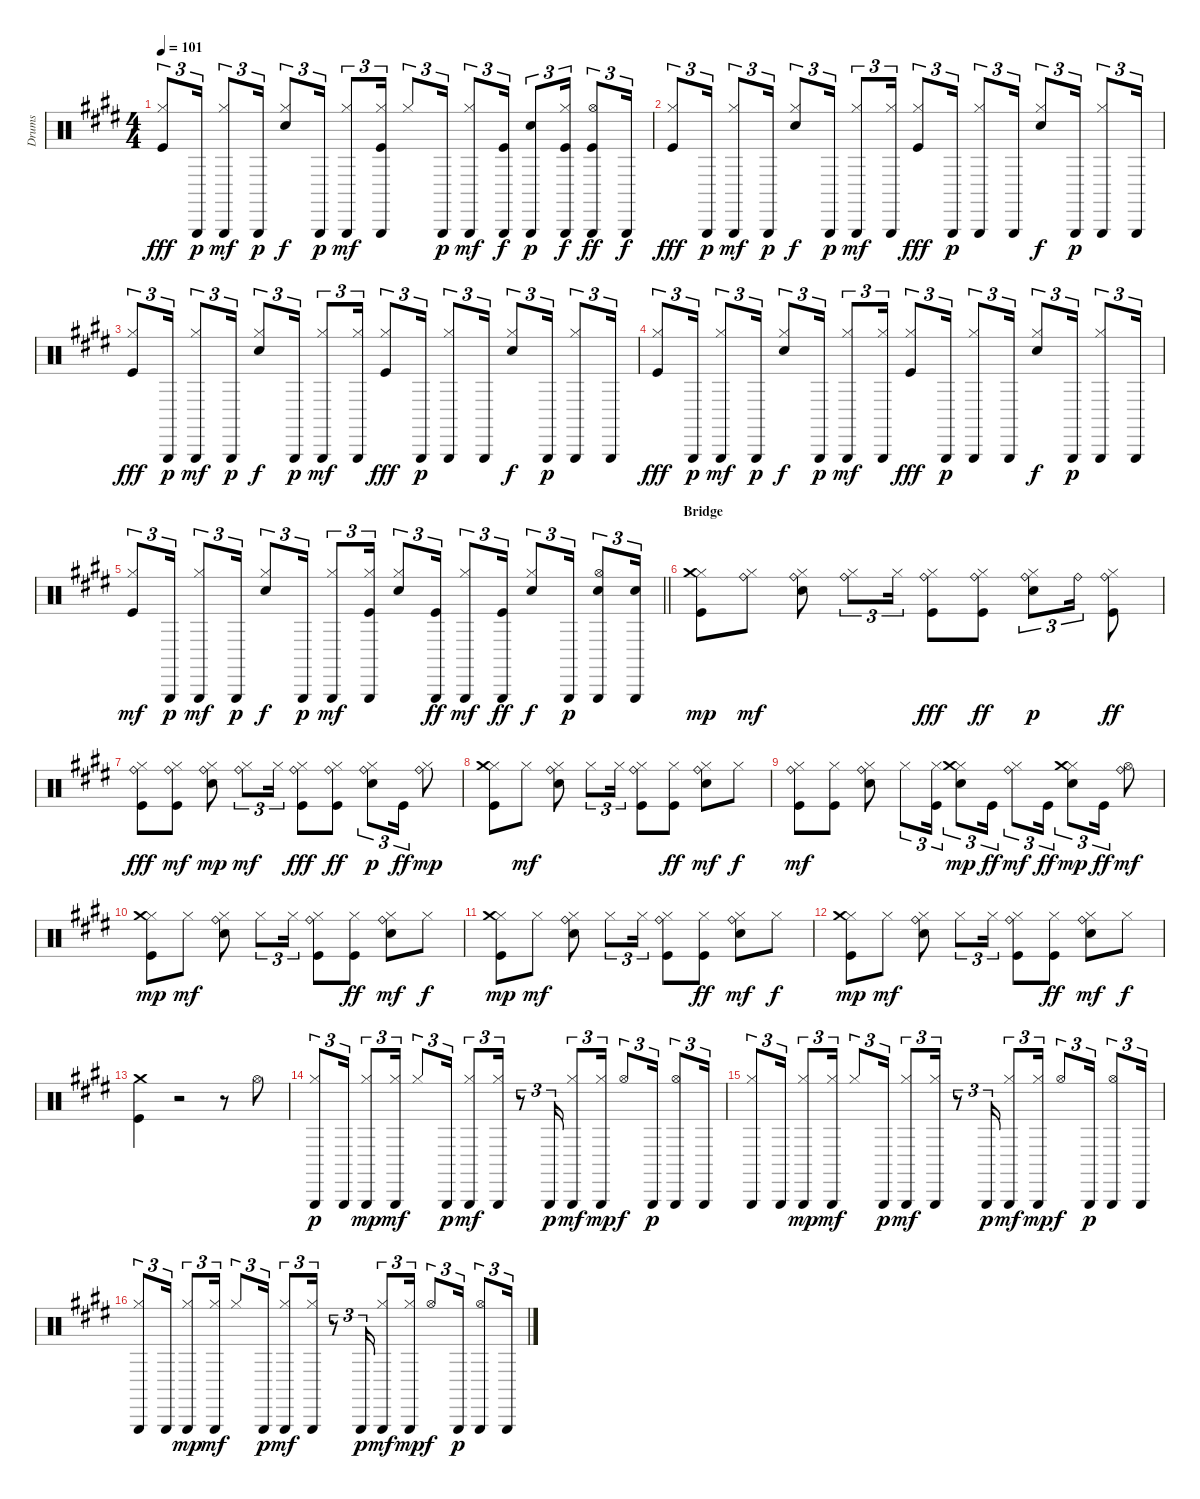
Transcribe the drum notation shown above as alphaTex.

\track ("Drums" "Drums") {instrument percussion}
\staff {score}
\articulation defaults
\ts (4 4)
\tempo 101
\clef neutral
\ks e
("Kick (hit)" "Hi-Hat (closed)").8{tu (3 2) dy fff} "Triangle (hit)".16{tu (3 2) dy p} ("Triangle (hit)" "Hi-Hat (closed)").8{tu (3 2) dy mf} "Triangle (hit)".16{tu (3 2) dy p} ("Electric Snare (hit)" "Hi-Hat (closed)").8{tu (3 2) dy f} "Triangle (hit)".16{tu (3 2) dy p} ("Triangle (hit)" "Hi-Hat (closed)").8{tu (3 2) dy mf} ("Triangle (hit)" "Kick (hit)" "Hi-Hat (closed)").16{tu (3 2)} "Hi-Hat (closed)".8{tu (3 2)} "Triangle (hit)".16{tu (3 2) dy p} ("Triangle (hit)" "Hi-Hat (closed)").8{tu (3 2) dy mf} ("Triangle (hit)" "Kick (hit)").16{tu (3 2) dy f} ("Triangle (hit)" "Electric Snare (hit)").8{tu (3 2) dy p} ("Triangle (hit)" "Hi-Hat (closed)" "Kick (hit)").16{tu (3 2) dy f} ("Triangle (hit)" "Kick (hit)" "Hi-Hat (open)").8{tu (3 2) dy ff} "Triangle (hit)".16{tu (3 2) dy f} |
("Kick (hit)" "Hi-Hat (closed)").8{tu (3 2) dy fff} "Triangle (hit)".16{tu (3 2) dy p} ("Triangle (hit)" "Hi-Hat (closed)").8{tu (3 2) dy mf} "Triangle (hit)".16{tu (3 2) dy p} ("Electric Snare (hit)" "Hi-Hat (closed)").8{tu (3 2) dy f} "Triangle (hit)".16{tu (3 2) dy p} ("Triangle (hit)" "Hi-Hat (closed)").8{tu (3 2) dy mf} ("Triangle (hit)" "Hi-Hat (closed)").16{tu (3 2)} ("Kick (hit)" "Hi-Hat (closed)").8{tu (3 2) dy fff} "Triangle (hit)".16{tu (3 2) dy p} ("Triangle (hit)" "Hi-Hat (closed)").8{tu (3 2)} "Triangle (hit)".16{tu (3 2)} ("Electric Snare (hit)" "Hi-Hat (closed)").8{tu (3 2) dy f} "Triangle (hit)".16{tu (3 2) dy p} ("Triangle (hit)" "Hi-Hat (closed)").8{tu (3 2)} "Triangle (hit)".16{tu (3 2)} |
("Kick (hit)" "Hi-Hat (closed)").8{tu (3 2) dy fff} "Triangle (hit)".16{tu (3 2) dy p} ("Triangle (hit)" "Hi-Hat (closed)").8{tu (3 2) dy mf} "Triangle (hit)".16{tu (3 2) dy p} ("Electric Snare (hit)" "Hi-Hat (closed)").8{tu (3 2) dy f} "Triangle (hit)".16{tu (3 2) dy p} ("Triangle (hit)" "Hi-Hat (closed)").8{tu (3 2) dy mf} ("Triangle (hit)" "Hi-Hat (closed)").16{tu (3 2)} ("Kick (hit)" "Hi-Hat (closed)").8{tu (3 2) dy fff} "Triangle (hit)".16{tu (3 2) dy p} ("Triangle (hit)" "Hi-Hat (closed)").8{tu (3 2)} "Triangle (hit)".16{tu (3 2)} ("Electric Snare (hit)" "Hi-Hat (closed)").8{tu (3 2) dy f} "Triangle (hit)".16{tu (3 2) dy p} ("Triangle (hit)" "Hi-Hat (closed)").8{tu (3 2)} "Triangle (hit)".16{tu (3 2)} |
("Kick (hit)" "Hi-Hat (closed)").8{tu (3 2) dy fff} "Triangle (hit)".16{tu (3 2) dy p} ("Triangle (hit)" "Hi-Hat (closed)").8{tu (3 2) dy mf} "Triangle (hit)".16{tu (3 2) dy p} ("Electric Snare (hit)" "Hi-Hat (closed)").8{tu (3 2) dy f} "Triangle (hit)".16{tu (3 2) dy p} ("Triangle (hit)" "Hi-Hat (closed)").8{tu (3 2) dy mf} ("Triangle (hit)" "Hi-Hat (closed)").16{tu (3 2)} ("Kick (hit)" "Hi-Hat (closed)").8{tu (3 2) dy fff} "Triangle (hit)".16{tu (3 2) dy p} ("Triangle (hit)" "Hi-Hat (closed)").8{tu (3 2)} "Triangle (hit)".16{tu (3 2)} ("Electric Snare (hit)" "Hi-Hat (closed)").8{tu (3 2) dy f} "Triangle (hit)".16{tu (3 2) dy p} ("Triangle (hit)" "Hi-Hat (closed)").8{tu (3 2)} "Triangle (hit)".16{tu (3 2)} |
\barLineRight lightlight
("Kick (hit)" "Hi-Hat (closed)").8{tu (3 2) dy mf} "Triangle (hit)".16{tu (3 2) dy p} ("Triangle (hit)" "Hi-Hat (closed)").8{tu (3 2) dy mf} "Triangle (hit)".16{tu (3 2) dy p} ("Electric Snare (hit)" "Hi-Hat (closed)").8{tu (3 2) dy f} "Triangle (hit)".16{tu (3 2) dy p} ("Triangle (hit)" "Hi-Hat (closed)").8{tu (3 2) dy mf} ("Triangle (hit)" "Kick (hit)" "Hi-Hat (closed)").16{tu (3 2)} ("Electric Snare (hit)" "Hi-Hat (closed)").8{tu (3 2)} ("Triangle (hit)" "Kick (hit)").16{tu (3 2) dy ff} ("Triangle (hit)" "Hi-Hat (closed)").8{tu (3 2) dy mf} ("Triangle (hit)" "Kick (hit)").16{tu (3 2) dy ff} ("Electric Snare (hit)" "Hi-Hat (closed)").8{tu (3 2) dy f} "Triangle (hit)".16{tu (3 2) dy p} ("Electric Snare (hit)" "Hi-Hat (open)" "Triangle (hit)").8{tu (3 2)} ("Electric Snare (hit)" "Triangle (hit)").16{tu (3 2)} |
\section ("" "Bridge")
("Kick (hit)" "Hi-Hat (closed)" "Crash medium (hit)").8{dy mp} ("Ride (bell)" "Hi-Hat (closed)").8{dy mf} ("Electric Snare (hit)" "Ride (bell)" "Hi-Hat (closed)").8 ("Ride (bell)" "Hi-Hat (closed)").8{tu (3 2)} "Hi-Hat (closed)".16{tu (3 2)} ("Ride (bell)" "Kick (hit)" "Hi-Hat (closed)").8{dy fff} ("Ride (bell)" "Kick (hit)" "Hi-Hat (closed)").8{dy ff} ("Electric Snare (hit)" "Ride (bell)" "Hi-Hat (closed)").8{tu (3 2) dy p} "Ride (bell)".16{tu (3 2)} ("Ride (bell)" "Kick (hit)" "Hi-Hat (closed)").8{dy ff} |
("Ride (bell)" "Kick (hit)" "Hi-Hat (closed)").8{dy fff} ("Ride (bell)" "Kick (hit)" "Hi-Hat (closed)").8{dy mf} ("Electric Snare (hit)" "Ride (bell)" "Hi-Hat (closed)").8{dy mp} ("Ride (bell)" "Hi-Hat (closed)").8{tu (3 2) dy mf} "Hi-Hat (closed)".16{tu (3 2)} ("Ride (bell)" "Kick (hit)" "Hi-Hat (closed)").8{dy fff} ("Ride (bell)" "Kick (hit)" "Hi-Hat (closed)").8{dy ff} ("Electric Snare (hit)" "Ride (bell)" "Hi-Hat (closed)").8{tu (3 2) dy p} "Kick (hit)".16{tu (3 2) dy ff} ("Ride (bell)" "Hi-Hat (closed)").8{dy mp} |
("Kick (hit)" "Hi-Hat (closed)" "Crash medium (hit)").8 "Hi-Hat (closed)".8{dy mf} ("Electric Snare (hit)" "Ride (bell)" "Hi-Hat (closed)").8 "Hi-Hat (closed)".8{tu (3 2)} "Hi-Hat (closed)".16{tu (3 2)} ("Ride (bell)" "Kick (hit)" "Hi-Hat (closed)").8 ("Kick (hit)" "Hi-Hat (closed)").8{dy ff} ("Electric Snare (hit)" "Ride (bell)" "Hi-Hat (closed)").8{dy mf} "Hi-Hat (closed)".8{dy f} |
("Ride (bell)" "Kick (hit)" "Hi-Hat (closed)").8{dy mf} ("Kick (hit)" "Hi-Hat (closed)").8 ("Electric Snare (hit)" "Ride (bell)" "Hi-Hat (closed)").8 "Hi-Hat (closed)".8{tu (3 2)} ("Kick (hit)" "Hi-Hat (closed)").16{tu (3 2)} ("Electric Snare (hit)" "Hi-Hat (closed)" "Crash medium (hit)").8{tu (3 2) dy mp} "Kick (hit)".16{tu (3 2) dy ff} ("Ride (bell)" "Hi-Hat (closed)").8{tu (3 2) dy mf} "Kick (hit)".16{tu (3 2) dy ff} ("Electric Snare (hit)" "Hi-Hat (closed)" "Crash medium (hit)").8{tu (3 2) dy mp} "Kick (hit)".16{tu (3 2) dy ff} ("Hi-Hat (open)" "Ride (bell)").8{dy mf} |
("Kick (hit)" "Hi-Hat (closed)" "Crash medium (hit)").8{dy mp} "Hi-Hat (closed)".8{dy mf} ("Electric Snare (hit)" "Ride (bell)" "Hi-Hat (closed)").8 "Hi-Hat (closed)".8{tu (3 2)} "Hi-Hat (closed)".16{tu (3 2)} ("Ride (bell)" "Kick (hit)" "Hi-Hat (closed)").8 ("Kick (hit)" "Hi-Hat (closed)").8{dy ff} ("Electric Snare (hit)" "Ride (bell)" "Hi-Hat (closed)").8{dy mf} "Hi-Hat (closed)".8{dy f} |
("Kick (hit)" "Hi-Hat (closed)" "Crash medium (hit)").8{dy mp} "Hi-Hat (closed)".8{dy mf} ("Electric Snare (hit)" "Ride (bell)" "Hi-Hat (closed)").8 "Hi-Hat (closed)".8{tu (3 2)} "Hi-Hat (closed)".16{tu (3 2)} ("Ride (bell)" "Kick (hit)" "Hi-Hat (closed)").8 ("Kick (hit)" "Hi-Hat (closed)").8{dy ff} ("Electric Snare (hit)" "Ride (bell)" "Hi-Hat (closed)").8{dy mf} "Hi-Hat (closed)".8{dy f} |
("Kick (hit)" "Hi-Hat (closed)" "Crash medium (hit)").8{dy mp} "Hi-Hat (closed)".8{dy mf} ("Electric Snare (hit)" "Ride (bell)" "Hi-Hat (closed)").8 "Hi-Hat (closed)".8{tu (3 2)} "Hi-Hat (closed)".16{tu (3 2)} ("Ride (bell)" "Kick (hit)" "Hi-Hat (closed)").8 ("Kick (hit)" "Hi-Hat (closed)").8{dy ff} ("Electric Snare (hit)" "Ride (bell)" "Hi-Hat (closed)").8{dy mf} "Hi-Hat (closed)".8{dy f} |
("Crash medium (hit)" "Kick (hit)").4 r.2 r.8 "Hi-Hat (open)".8 |
("Triangle (hit)" "Hi-Hat (closed)").8{tu (3 2) dy p} "Triangle (hit)".16{tu (3 2)} ("Triangle (hit)" "Hi-Hat (closed)").8{tu (3 2) dy mp} ("Triangle (hit)" "Hi-Hat (closed)").16{tu (3 2) dy mf} "Hi-Hat (closed)".8{tu (3 2)} "Triangle (hit)".16{tu (3 2) dy p} ("Triangle (hit)" "Hi-Hat (closed)").8{tu (3 2) dy mf} ("Triangle (hit)" "Hi-Hat (closed)").16{tu (3 2)} r.8{tu (3 2)} "Triangle (hit)".16{tu (3 2) dy p} ("Triangle (hit)" "Hi-Hat (closed)").8{tu (3 2) dy mf} ("Triangle (hit)" "Hi-Hat (closed)").16{tu (3 2) dy mp} "Hi-Hat (open)".8{tu (3 2) dy f} "Triangle (hit)".16{tu (3 2) dy p} ("Hi-Hat (open)" "Triangle (hit)").8{tu (3 2)} "Triangle (hit)".16{tu (3 2)} |
("Triangle (hit)" "Hi-Hat (closed)").8{tu (3 2)} "Triangle (hit)".16{tu (3 2)} ("Triangle (hit)" "Hi-Hat (closed)").8{tu (3 2) dy mp} ("Triangle (hit)" "Hi-Hat (closed)").16{tu (3 2) dy mf} "Hi-Hat (closed)".8{tu (3 2)} "Triangle (hit)".16{tu (3 2) dy p} ("Triangle (hit)" "Hi-Hat (closed)").8{tu (3 2) dy mf} ("Triangle (hit)" "Hi-Hat (closed)").16{tu (3 2)} r.8{tu (3 2)} "Triangle (hit)".16{tu (3 2) dy p} ("Triangle (hit)" "Hi-Hat (closed)").8{tu (3 2) dy mf} ("Triangle (hit)" "Hi-Hat (closed)").16{tu (3 2) dy mp} "Hi-Hat (open)".8{tu (3 2) dy f} "Triangle (hit)".16{tu (3 2) dy p} ("Hi-Hat (open)" "Triangle (hit)").8{tu (3 2)} "Triangle (hit)".16{tu (3 2)} |
("Triangle (hit)" "Hi-Hat (closed)").8{tu (3 2)} "Triangle (hit)".16{tu (3 2)} ("Triangle (hit)" "Hi-Hat (closed)").8{tu (3 2) dy mp} ("Triangle (hit)" "Hi-Hat (closed)").16{tu (3 2) dy mf} "Hi-Hat (closed)".8{tu (3 2)} "Triangle (hit)".16{tu (3 2) dy p} ("Triangle (hit)" "Hi-Hat (closed)").8{tu (3 2) dy mf} ("Triangle (hit)" "Hi-Hat (closed)").16{tu (3 2)} r.8{tu (3 2)} "Triangle (hit)".16{tu (3 2) dy p} ("Triangle (hit)" "Hi-Hat (closed)").8{tu (3 2) dy mf} ("Triangle (hit)" "Hi-Hat (closed)").16{tu (3 2) dy mp} "Hi-Hat (open)".8{tu (3 2) dy f} "Triangle (hit)".16{tu (3 2) dy p} ("Hi-Hat (open)" "Triangle (hit)").8{tu (3 2)} "Triangle (hit)".16{tu (3 2)}
